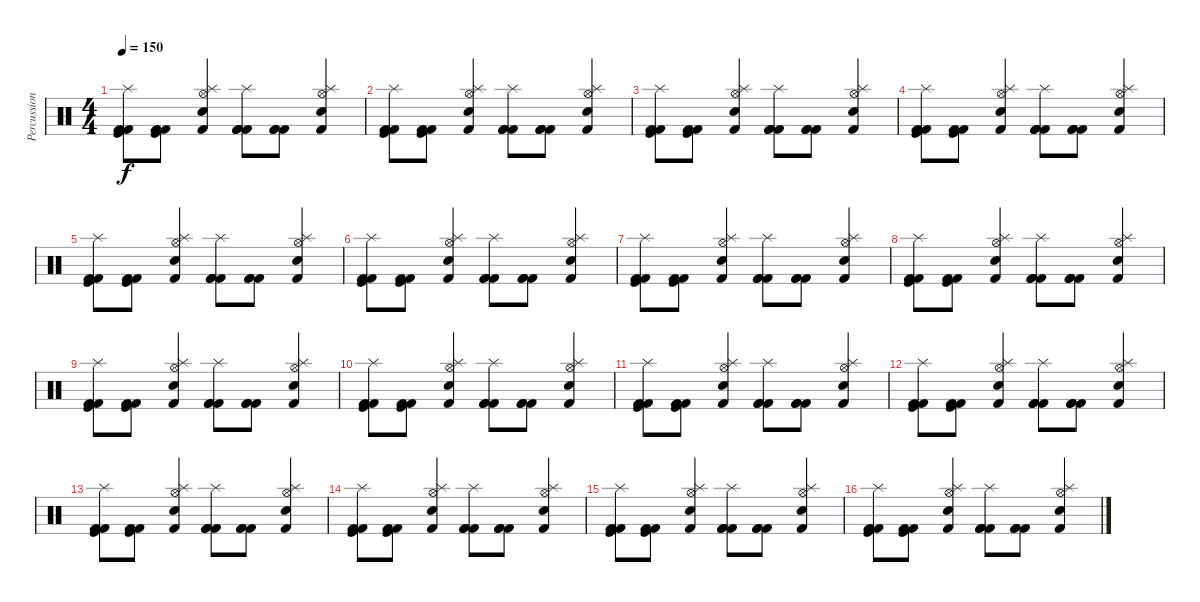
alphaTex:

\track ("Percussion" "Percussion") {instrument percussion}
\staff {score}
\articulation defaults
\ts (4 4)
\tempo 150
\clef neutral
\ks c
("Kick (hit) 2" "Kick (hit)" "Kick (hit) 2" "Splash (hit)").8{dy f} ("Kick (hit) 2" "Kick (hit)" "Kick (hit) 2").8 ("Hi-Hat (open)" "Snare (hit) 2" "Kick (hit) 2" "Splash (hit)").4 ("Kick (hit) 2" "Kick (hit) 2" "Kick (hit) 2" "Splash (hit)").8 ("Kick (hit) 2" "Kick (hit) 2" "Kick (hit) 2").8 ("Hi-Hat (open)" "Snare (hit) 2" "Kick (hit) 2" "Splash (hit)").4 |
("Kick (hit) 2" "Kick (hit)" "Kick (hit) 2" "Splash (hit)").8 ("Kick (hit) 2" "Kick (hit)" "Kick (hit) 2").8 ("Hi-Hat (open)" "Snare (hit) 2" "Kick (hit) 2" "Splash (hit)").4 ("Kick (hit) 2" "Kick (hit) 2" "Kick (hit) 2" "Splash (hit)").8 ("Kick (hit) 2" "Kick (hit) 2" "Kick (hit) 2").8 ("Hi-Hat (open)" "Snare (hit) 2" "Kick (hit) 2" "Splash (hit)").4 |
("Kick (hit) 2" "Kick (hit)" "Kick (hit) 2" "Splash (hit)").8 ("Kick (hit) 2" "Kick (hit)" "Kick (hit) 2").8 ("Hi-Hat (open)" "Snare (hit) 2" "Kick (hit) 2" "Splash (hit)").4 ("Kick (hit) 2" "Kick (hit) 2" "Kick (hit) 2" "Splash (hit)").8 ("Kick (hit) 2" "Kick (hit) 2" "Kick (hit) 2").8 ("Hi-Hat (open)" "Snare (hit) 2" "Kick (hit) 2" "Splash (hit)").4 |
("Kick (hit) 2" "Kick (hit)" "Kick (hit) 2" "Splash (hit)").8 ("Kick (hit) 2" "Kick (hit)" "Kick (hit) 2").8 ("Hi-Hat (open)" "Snare (hit) 2" "Kick (hit) 2" "Splash (hit)").4 ("Kick (hit) 2" "Kick (hit) 2" "Kick (hit) 2" "Splash (hit)").8 ("Kick (hit) 2" "Kick (hit) 2" "Kick (hit) 2").8 ("Hi-Hat (open)" "Snare (hit) 2" "Kick (hit) 2" "Splash (hit)").4 |
("Kick (hit) 2" "Kick (hit)" "Kick (hit) 2" "Splash (hit)").8 ("Kick (hit) 2" "Kick (hit)" "Kick (hit) 2").8 ("Hi-Hat (open)" "Snare (hit) 2" "Kick (hit) 2" "Splash (hit)").4 ("Kick (hit) 2" "Kick (hit) 2" "Kick (hit) 2" "Splash (hit)").8 ("Kick (hit) 2" "Kick (hit) 2" "Kick (hit) 2").8 ("Hi-Hat (open)" "Snare (hit) 2" "Kick (hit) 2" "Splash (hit)").4 |
("Kick (hit) 2" "Kick (hit)" "Kick (hit) 2" "Splash (hit)").8 ("Kick (hit) 2" "Kick (hit)" "Kick (hit) 2").8 ("Hi-Hat (open)" "Snare (hit) 2" "Kick (hit) 2" "Splash (hit)").4 ("Kick (hit) 2" "Kick (hit) 2" "Kick (hit) 2" "Splash (hit)").8 ("Kick (hit) 2" "Kick (hit) 2" "Kick (hit) 2").8 ("Hi-Hat (open)" "Snare (hit) 2" "Kick (hit) 2" "Splash (hit)").4 |
("Kick (hit) 2" "Kick (hit)" "Kick (hit) 2" "Splash (hit)").8 ("Kick (hit) 2" "Kick (hit)" "Kick (hit) 2").8 ("Hi-Hat (open)" "Snare (hit) 2" "Kick (hit) 2" "Splash (hit)").4 ("Kick (hit) 2" "Kick (hit) 2" "Kick (hit) 2" "Splash (hit)").8 ("Kick (hit) 2" "Kick (hit) 2" "Kick (hit) 2").8 ("Hi-Hat (open)" "Snare (hit) 2" "Kick (hit) 2" "Splash (hit)").4 |
("Kick (hit) 2" "Kick (hit)" "Kick (hit) 2" "Splash (hit)").8 ("Kick (hit) 2" "Kick (hit)" "Kick (hit) 2").8 ("Hi-Hat (open)" "Snare (hit) 2" "Kick (hit) 2" "Splash (hit)").4 ("Kick (hit) 2" "Kick (hit) 2" "Kick (hit) 2" "Splash (hit)").8 ("Kick (hit) 2" "Kick (hit) 2" "Kick (hit) 2").8 ("Hi-Hat (open)" "Snare (hit) 2" "Kick (hit) 2" "Splash (hit)").4 |
("Kick (hit) 2" "Kick (hit)" "Kick (hit) 2" "Splash (hit)").8 ("Kick (hit) 2" "Kick (hit)" "Kick (hit) 2").8 ("Hi-Hat (open)" "Snare (hit) 2" "Kick (hit) 2" "Splash (hit)").4 ("Kick (hit) 2" "Kick (hit) 2" "Kick (hit) 2" "Splash (hit)").8 ("Kick (hit) 2" "Kick (hit) 2" "Kick (hit) 2").8 ("Hi-Hat (open)" "Snare (hit) 2" "Kick (hit) 2" "Splash (hit)").4 |
("Kick (hit) 2" "Kick (hit)" "Kick (hit) 2" "Splash (hit)").8 ("Kick (hit) 2" "Kick (hit)" "Kick (hit) 2").8 ("Hi-Hat (open)" "Snare (hit) 2" "Kick (hit) 2" "Splash (hit)").4 ("Kick (hit) 2" "Kick (hit) 2" "Kick (hit) 2" "Splash (hit)").8 ("Kick (hit) 2" "Kick (hit) 2" "Kick (hit) 2").8 ("Hi-Hat (open)" "Snare (hit) 2" "Kick (hit) 2" "Splash (hit)").4 |
("Kick (hit) 2" "Kick (hit)" "Kick (hit) 2" "Splash (hit)").8 ("Kick (hit) 2" "Kick (hit)" "Kick (hit) 2").8 ("Hi-Hat (open)" "Snare (hit) 2" "Kick (hit) 2" "Splash (hit)").4 ("Kick (hit) 2" "Kick (hit) 2" "Kick (hit) 2" "Splash (hit)").8 ("Kick (hit) 2" "Kick (hit) 2" "Kick (hit) 2").8 ("Hi-Hat (open)" "Snare (hit) 2" "Kick (hit) 2" "Splash (hit)").4 |
("Kick (hit) 2" "Kick (hit)" "Kick (hit) 2" "Splash (hit)").8 ("Kick (hit) 2" "Kick (hit)" "Kick (hit) 2").8 ("Hi-Hat (open)" "Snare (hit) 2" "Kick (hit) 2" "Splash (hit)").4 ("Kick (hit) 2" "Kick (hit) 2" "Kick (hit) 2" "Splash (hit)").8 ("Kick (hit) 2" "Kick (hit) 2" "Kick (hit) 2").8 ("Hi-Hat (open)" "Snare (hit) 2" "Kick (hit) 2" "Splash (hit)").4 |
("Kick (hit) 2" "Kick (hit)" "Kick (hit) 2" "Splash (hit)").8 ("Kick (hit) 2" "Kick (hit)" "Kick (hit) 2").8 ("Hi-Hat (open)" "Snare (hit) 2" "Kick (hit) 2" "Splash (hit)").4 ("Kick (hit) 2" "Kick (hit) 2" "Kick (hit) 2" "Splash (hit)").8 ("Kick (hit) 2" "Kick (hit) 2" "Kick (hit) 2").8 ("Hi-Hat (open)" "Snare (hit) 2" "Kick (hit) 2" "Splash (hit)").4 |
("Kick (hit) 2" "Kick (hit)" "Kick (hit) 2" "Splash (hit)").8 ("Kick (hit) 2" "Kick (hit)" "Kick (hit) 2").8 ("Hi-Hat (open)" "Snare (hit) 2" "Kick (hit) 2" "Splash (hit)").4 ("Kick (hit) 2" "Kick (hit) 2" "Kick (hit) 2" "Splash (hit)").8 ("Kick (hit) 2" "Kick (hit) 2" "Kick (hit) 2").8 ("Hi-Hat (open)" "Snare (hit) 2" "Kick (hit) 2" "Splash (hit)").4 |
("Kick (hit) 2" "Kick (hit)" "Kick (hit) 2" "Splash (hit)").8 ("Kick (hit) 2" "Kick (hit)" "Kick (hit) 2").8 ("Hi-Hat (open)" "Snare (hit) 2" "Kick (hit) 2" "Splash (hit)").4 ("Kick (hit) 2" "Kick (hit) 2" "Kick (hit) 2" "Splash (hit)").8 ("Kick (hit) 2" "Kick (hit) 2" "Kick (hit) 2").8 ("Hi-Hat (open)" "Snare (hit) 2" "Kick (hit) 2" "Splash (hit)").4 |
("Kick (hit) 2" "Kick (hit)" "Kick (hit) 2" "Splash (hit)").8 ("Kick (hit) 2" "Kick (hit)" "Kick (hit) 2").8 ("Hi-Hat (open)" "Snare (hit) 2" "Kick (hit) 2" "Splash (hit)").4 ("Kick (hit) 2" "Kick (hit) 2" "Kick (hit) 2" "Splash (hit)").8 ("Kick (hit) 2" "Kick (hit) 2" "Kick (hit) 2").8 ("Hi-Hat (open)" "Snare (hit) 2" "Kick (hit) 2" "Splash (hit)").4
